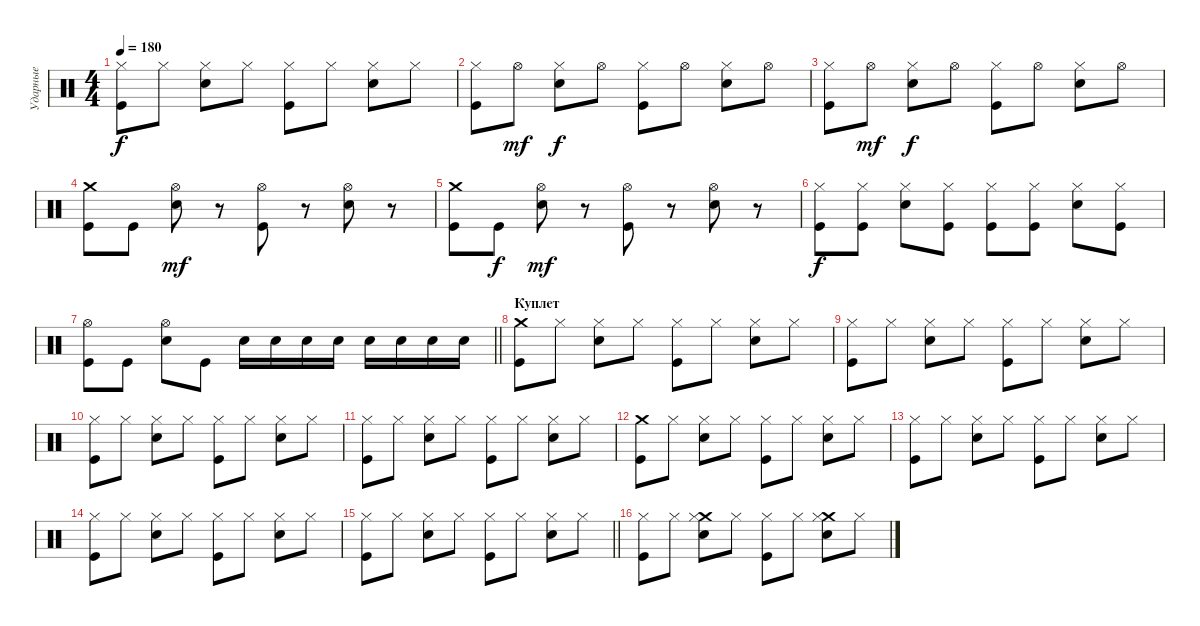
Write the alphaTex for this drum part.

\track ("Ударные" "Ударные") {instrument percussion}
\staff {score}
\articulation defaults
\ts (4 4)
\tempo 180
\clef neutral
\ks c
("Hi-Hat (closed)" "Kick (hit)").8{dy f} "Hi-Hat (closed)".8 ("Hi-Hat (closed)" "Electric Snare (hit)").8 "Hi-Hat (closed)".8 ("Hi-Hat (closed)" "Kick (hit)").8 "Hi-Hat (closed)".8 ("Hi-Hat (closed)" "Electric Snare (hit)").8 "Hi-Hat (closed)".8 |
("Hi-Hat (closed)" "Kick (hit)").8 "Hi-Hat (open)".8{dy mf} ("Hi-Hat (closed)" "Electric Snare (hit)").8{dy f} "Hi-Hat (open)".8 ("Hi-Hat (closed)" "Kick (hit)").8 "Hi-Hat (open)".8 ("Hi-Hat (closed)" "Electric Snare (hit)").8 "Hi-Hat (open)".8 |
("Hi-Hat (closed)" "Kick (hit)").8 "Hi-Hat (open)".8{dy mf} ("Hi-Hat (closed)" "Electric Snare (hit)").8{dy f} "Hi-Hat (open)".8 ("Hi-Hat (closed)" "Kick (hit)").8 "Hi-Hat (open)".8 ("Hi-Hat (closed)" "Electric Snare (hit)").8 "Hi-Hat (open)".8 |
("Crash medium (hit)" "Kick (hit)").8 "Kick (hit)".8 ("Hi-Hat (open)" "Electric Snare (hit)").8{dy mf} r.8 ("Hi-Hat (open)" "Kick (hit)").8 r.8 ("Hi-Hat (open)" "Electric Snare (hit)").8 r.8 |
("Crash medium (hit)" "Kick (hit)").8 "Kick (hit)".8{dy f} ("Hi-Hat (open)" "Electric Snare (hit)").8{dy mf} r.8 ("Hi-Hat (open)" "Kick (hit)").8 r.8 ("Hi-Hat (open)" "Electric Snare (hit)").8 r.8 |
("Hi-Hat (closed)" "Kick (hit)").8{dy f} ("Hi-Hat (closed)" "Kick (hit)").8 ("Hi-Hat (closed)" "Electric Snare (hit)").8 ("Hi-Hat (closed)" "Kick (hit)").8 ("Hi-Hat (closed)" "Kick (hit)").8 ("Hi-Hat (closed)" "Kick (hit)").8 ("Hi-Hat (closed)" "Electric Snare (hit)").8 ("Hi-Hat (closed)" "Kick (hit)").8 |
\barLineRight lightlight
("Hi-Hat (open)" "Kick (hit)").8 "Kick (hit)".8 ("Hi-Hat (open)" "Electric Snare (hit)").8 "Kick (hit)".8 "Electric Snare (hit)".16 "Electric Snare (hit)".16 "Electric Snare (hit)".16 "Electric Snare (hit)".16 "Electric Snare (hit)".16 "Electric Snare (hit)".16 "Electric Snare (hit)".16 "Electric Snare (hit)".16 |
\section ("" "Куплет")
("Crash medium (hit)" "Kick (hit)").8 "Hi-Hat (closed)".8 ("Hi-Hat (closed)" "Electric Snare (hit)").8 "Hi-Hat (closed)".8 ("Hi-Hat (closed)" "Kick (hit)").8 "Hi-Hat (closed)".8 ("Hi-Hat (closed)" "Electric Snare (hit)").8 "Hi-Hat (closed)".8 |
("Hi-Hat (closed)" "Kick (hit)").8 "Hi-Hat (closed)".8 ("Hi-Hat (closed)" "Electric Snare (hit)").8 "Hi-Hat (closed)".8 ("Hi-Hat (closed)" "Kick (hit)").8 "Hi-Hat (closed)".8 ("Hi-Hat (closed)" "Electric Snare (hit)").8 "Hi-Hat (closed)".8 |
("Hi-Hat (closed)" "Kick (hit)").8 "Hi-Hat (closed)".8 ("Hi-Hat (closed)" "Electric Snare (hit)").8 "Hi-Hat (closed)".8 ("Hi-Hat (closed)" "Kick (hit)").8 "Hi-Hat (closed)".8 ("Hi-Hat (closed)" "Electric Snare (hit)").8 "Hi-Hat (closed)".8 |
("Hi-Hat (closed)" "Kick (hit)").8 "Hi-Hat (closed)".8 ("Hi-Hat (closed)" "Electric Snare (hit)").8 "Hi-Hat (closed)".8 ("Hi-Hat (closed)" "Kick (hit)").8 "Hi-Hat (closed)".8 ("Hi-Hat (closed)" "Electric Snare (hit)").8 "Hi-Hat (closed)".8 |
("Crash medium (hit)" "Kick (hit)").8 "Hi-Hat (closed)".8 ("Hi-Hat (closed)" "Electric Snare (hit)").8 "Hi-Hat (closed)".8 ("Hi-Hat (closed)" "Kick (hit)").8 "Hi-Hat (closed)".8 ("Hi-Hat (closed)" "Electric Snare (hit)").8 "Hi-Hat (closed)".8 |
("Hi-Hat (closed)" "Kick (hit)").8 "Hi-Hat (closed)".8 ("Hi-Hat (closed)" "Electric Snare (hit)").8 "Hi-Hat (closed)".8 ("Hi-Hat (closed)" "Kick (hit)").8 "Hi-Hat (closed)".8 ("Hi-Hat (closed)" "Electric Snare (hit)").8 "Hi-Hat (closed)".8 |
("Hi-Hat (closed)" "Kick (hit)").8 "Hi-Hat (closed)".8 ("Hi-Hat (closed)" "Electric Snare (hit)").8 "Hi-Hat (closed)".8 ("Hi-Hat (closed)" "Kick (hit)").8 "Hi-Hat (closed)".8 ("Hi-Hat (closed)" "Electric Snare (hit)").8 "Hi-Hat (closed)".8 |
\barLineRight lightlight
("Hi-Hat (closed)" "Kick (hit)").8 "Hi-Hat (closed)".8 ("Hi-Hat (closed)" "Electric Snare (hit)").8 "Hi-Hat (closed)".8 ("Hi-Hat (closed)" "Kick (hit)").8 "Hi-Hat (closed)".8 ("Hi-Hat (closed)" "Electric Snare (hit)").8 "Hi-Hat (closed)".8 |
("Hi-Hat (closed)" "Kick (hit)").8 "Hi-Hat (closed)".8 ("Crash medium (hit)" "Hi-Hat (closed)" "Electric Snare (hit)").8 "Hi-Hat (closed)".8 ("Hi-Hat (closed)" "Kick (hit)").8 "Hi-Hat (closed)".8 ("Crash medium (hit)" "Hi-Hat (closed)" "Electric Snare (hit)").8 "Hi-Hat (closed)".8
